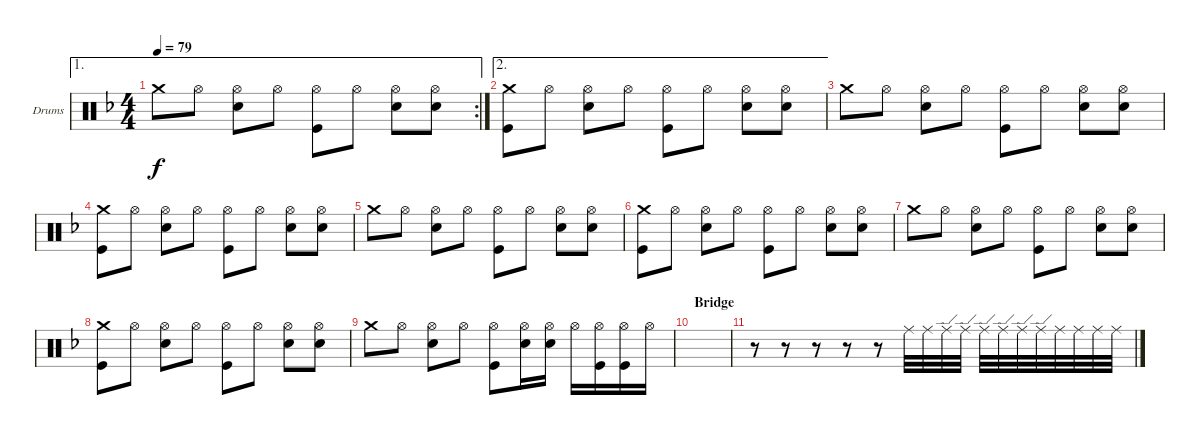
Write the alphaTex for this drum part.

\defaultSystemsLayout 4
\bracketExtendMode groupsimilarinstruments
\firstSystemTrackNameOrientation horizontal
\otherSystemsTrackNameOrientation horizontal
\track ("Drumkit" "Drums") {instrument percussion}
\staff {score}
\articulation defaults
\ae 1
\rc 2
\ts (4 4)
\tempo 79
\clef neutral
\ks f "Crash medium (hit)".8{dy f} "Hi-Hat (open)".8
("Hi-Hat (open)" "Snare (hit) 2").8 "Hi-Hat (open)".8 ("Hi-Hat (open)" "Kick (hit)").8 "Hi-Hat (open)".8 ("Hi-Hat (open)" "Snare (hit) 2").8 ("Snare (hit) 2" "Hi-Hat (open)").8 |
\ae 2
("Crash medium (hit)" "Kick (hit)").8 "Hi-Hat (open)".8 ("Hi-Hat (open)" "Snare (hit) 2").8 "Hi-Hat (open)".8 ("Hi-Hat (open)" "Kick (hit)").8 "Hi-Hat (open)".8 ("Hi-Hat (open)" "Snare (hit) 2").8 ("Hi-Hat (open)" "Snare (hit) 2").8 |
"Crash medium (hit)".8 "Hi-Hat (open)".8 ("Hi-Hat (open)" "Snare (hit) 2").8 "Hi-Hat (open)".8 ("Hi-Hat (open)" "Kick (hit)").8 "Hi-Hat (open)".8 ("Hi-Hat (open)" "Snare (hit) 2").8 ("Snare (hit) 2" "Hi-Hat (open)").8 |
("Crash medium (hit)" "Kick (hit)").8 "Hi-Hat (open)".8 ("Hi-Hat (open)" "Snare (hit) 2").8 "Hi-Hat (open)".8 ("Hi-Hat (open)" "Kick (hit)").8 "Hi-Hat (open)".8 ("Hi-Hat (open)" "Snare (hit) 2").8 ("Hi-Hat (open)" "Snare (hit) 2").8 |
"Crash medium (hit)".8 "Hi-Hat (open)".8 ("Hi-Hat (open)" "Snare (hit) 2").8 "Hi-Hat (open)".8 ("Hi-Hat (open)" "Kick (hit)").8 "Hi-Hat (open)".8 ("Hi-Hat (open)" "Snare (hit) 2").8 ("Snare (hit) 2" "Hi-Hat (open)").8 |
("Crash medium (hit)" "Kick (hit)").8 "Hi-Hat (open)".8 ("Hi-Hat (open)" "Snare (hit) 2").8 "Hi-Hat (open)".8 ("Hi-Hat (open)" "Kick (hit)").8 "Hi-Hat (open)".8 ("Hi-Hat (open)" "Snare (hit) 2").8 ("Hi-Hat (open)" "Snare (hit) 2").8 |
"Crash medium (hit)".8 "Hi-Hat (open)".8 ("Hi-Hat (open)" "Snare (hit) 2").8 "Hi-Hat (open)".8 ("Hi-Hat (open)" "Kick (hit)").8 "Hi-Hat (open)".8 ("Hi-Hat (open)" "Snare (hit) 2").8 ("Snare (hit) 2" "Hi-Hat (open)").8 |
("Crash medium (hit)" "Kick (hit)").8 "Hi-Hat (open)".8 ("Hi-Hat (open)" "Snare (hit) 2").8 "Hi-Hat (open)".8 ("Hi-Hat (open)" "Kick (hit)").8 "Hi-Hat (open)".8 ("Hi-Hat (open)" "Snare (hit) 2").8 ("Hi-Hat (open)" "Snare (hit) 2").8 |
"Crash medium (hit)".8 "Hi-Hat (open)".8 ("Hi-Hat (open)" "Snare (hit) 2").8 "Hi-Hat (open)".8 ("Hi-Hat (open)" "Kick (hit)").8 ("Hi-Hat (open)" "Snare (hit) 2").16 ("Hi-Hat (open)" "Snare (hit) 2").16 "Hi-Hat (open)".16 ("Hi-Hat (open)" "Kick (hit)").16 ("Hi-Hat (open)" "Kick (hit)").16 "Hi-Hat (open)".16 |
\section ("" "Bridge")
|
r.8 r.8 r.8 r.8 r.8 "Ride (middle)".32 "Ride (middle)".32 "Ride (edge)".32 "Ride (edge)".32 "Ride (edge)".32 "Ride (edge)".32 "Ride (edge)".32 "Ride (edge)".32 "Ride (middle)".32 "Ride (middle)".32 "Ride (middle)".32 "Ride (middle)".32
